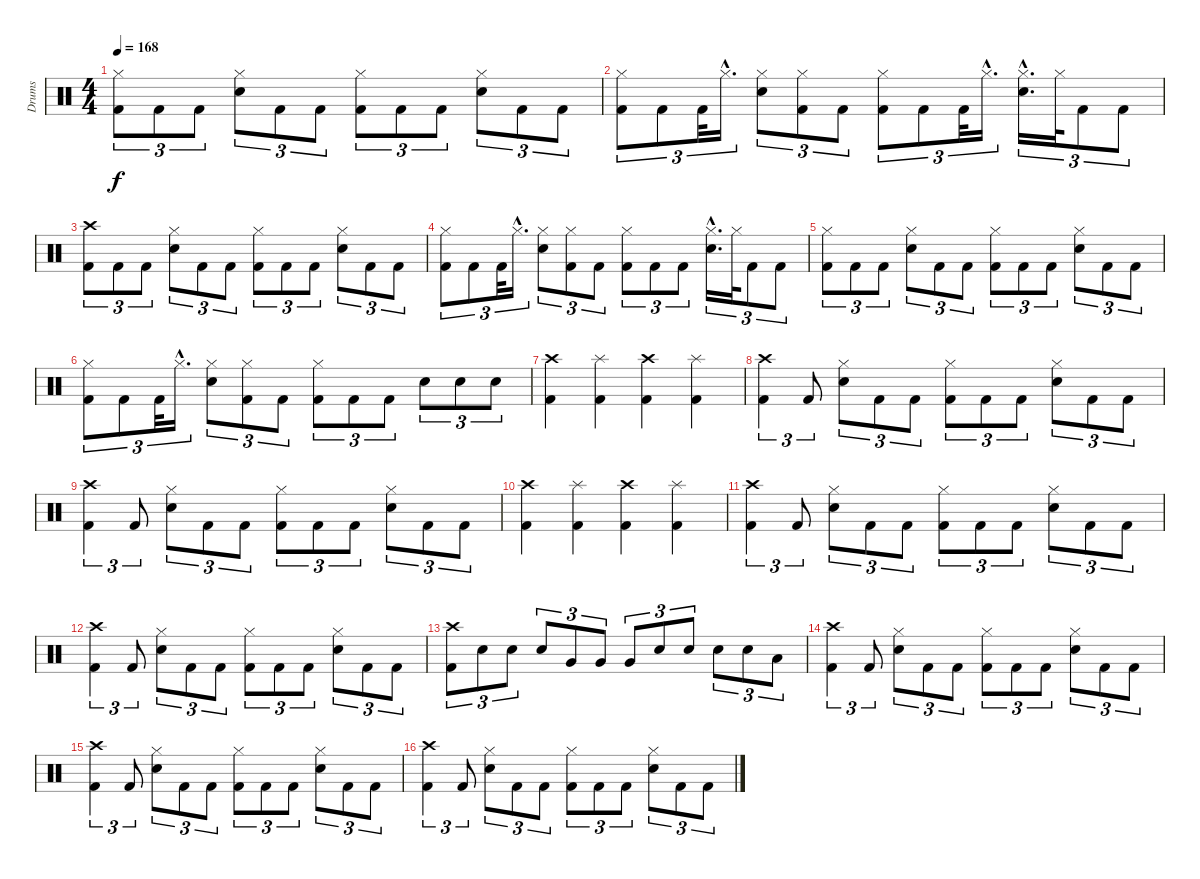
\track ("Drums" "Drums") {instrument percussion}
\staff {score}
\articulation defaults
\ts (4 4)
\tempo 168
\clef neutral
\ks c
("Kick (hit) 2" "Hi-Hat (closed)").8{tu (3 2) dy f} "Kick (hit) 2".8{tu (3 2)} "Kick (hit) 2".8{tu (3 2)} ("Electric Snare (hit)" "Hi-Hat (closed)").8{tu (3 2)} "Kick (hit) 2".8{tu (3 2)} "Kick (hit) 2".8{tu (3 2)} ("Kick (hit) 2" "Hi-Hat (closed)").8{tu (3 2)} "Kick (hit) 2".8{tu (3 2)} "Kick (hit) 2".8{tu (3 2)} ("Electric Snare (hit)" "Hi-Hat (closed)").8{tu (3 2)} "Kick (hit) 2".8{tu (3 2)} "Kick (hit) 2".8{tu (3 2)} |
("Kick (hit) 2" "Hi-Hat (closed)").8{tu (3 2)} "Kick (hit) 2".8{tu (3 2)} "Kick (hit) 2".32{tu (3 2)} "Hi-Hat (closed)"{hac}.16{d tu (3 2)} ("Electric Snare (hit)" "Hi-Hat (closed)").8{tu (3 2)} ("Kick (hit) 2" "Hi-Hat (closed)").8{tu (3 2)} "Kick (hit) 2".8{tu (3 2)} ("Kick (hit) 2" "Hi-Hat (closed)").8{tu (3 2)} "Kick (hit) 2".8{tu (3 2)} "Kick (hit) 2".32{tu (3 2)} "Hi-Hat (closed)"{hac}.16{d tu (3 2)} ("Electric Snare (hit)"{hac} "Hi-Hat (closed)"{hac}).16{d tu (3 2)} "Hi-Hat (closed)".32{tu (3 2)} "Kick (hit) 2".8{tu (3 2)} "Kick (hit) 2".8{tu (3 2)} |
("Kick (hit) 2" "Crash high (hit)").8{tu (3 2) balance 8} "Kick (hit) 2".8{tu (3 2)} "Kick (hit) 2".8{tu (3 2)} ("Hi-Hat (closed)" "Electric Snare (hit)").8{tu (3 2)} "Kick (hit) 2".8{tu (3 2)} "Kick (hit) 2".8{tu (3 2)} ("Kick (hit) 2" "Hi-Hat (closed)").8{tu (3 2)} "Kick (hit) 2".8{tu (3 2)} "Kick (hit) 2".8{tu (3 2)} ("Hi-Hat (closed)" "Electric Snare (hit)").8{tu (3 2)} "Kick (hit) 2".8{tu (3 2)} "Kick (hit) 2".8{tu (3 2)} |
("Kick (hit) 2" "Hi-Hat (closed)").8{tu (3 2)} "Kick (hit) 2".8{tu (3 2)} "Kick (hit) 2".32{tu (3 2)} "Hi-Hat (closed)"{hac}.16{d tu (3 2)} ("Electric Snare (hit)" "Hi-Hat (closed)").8{tu (3 2)} ("Kick (hit) 2" "Hi-Hat (closed)").8{tu (3 2)} "Kick (hit) 2".8{tu (3 2)} ("Kick (hit) 2" "Hi-Hat (closed)").8{tu (3 2)} "Kick (hit) 2".8{tu (3 2)} "Kick (hit) 2".8{tu (3 2)} ("Electric Snare (hit)"{hac} "Hi-Hat (closed)"{hac}).16{d tu (3 2)} "Hi-Hat (closed)".32{tu (3 2)} "Kick (hit) 2".8{tu (3 2)} "Kick (hit) 2".8{tu (3 2)} |
("Kick (hit) 2" "Hi-Hat (closed)").8{tu (3 2)} "Kick (hit) 2".8{tu (3 2)} "Kick (hit) 2".8{tu (3 2)} ("Electric Snare (hit)" "Hi-Hat (closed)").8{tu (3 2)} "Kick (hit) 2".8{tu (3 2)} "Kick (hit) 2".8{tu (3 2)} ("Kick (hit) 2" "Hi-Hat (closed)").8{tu (3 2)} "Kick (hit) 2".8{tu (3 2)} "Kick (hit) 2".8{tu (3 2)} ("Electric Snare (hit)" "Hi-Hat (closed)").8{tu (3 2)} "Kick (hit) 2".8{tu (3 2)} "Kick (hit) 2".8{tu (3 2)} |
("Kick (hit) 2" "Hi-Hat (closed)").8{tu (3 2)} "Kick (hit) 2".8{tu (3 2)} "Kick (hit) 2".32{tu (3 2)} "Hi-Hat (closed)"{hac}.16{d tu (3 2)} ("Electric Snare (hit)" "Hi-Hat (closed)").8{tu (3 2)} ("Kick (hit) 2" "Hi-Hat (closed)").8{tu (3 2)} "Kick (hit) 2".8{tu (3 2)} ("Kick (hit) 2" "Hi-Hat (closed)").8{tu (3 2)} "Kick (hit) 2".8{tu (3 2)} "Kick (hit) 2".8{tu (3 2)} "Electric Snare (hit)".8{tu (3 2)} "Electric Snare (hit)".8{tu (3 2)} "Electric Snare (hit)".8{tu (3 2)} |
("Kick (hit) 2" "Crash high (hit)").4 ("Kick (hit) 2" "Splash (hit)").4 ("Kick (hit) 2" "Crash high (hit)").4 ("Kick (hit) 2" "Splash (hit)").4 |
("Kick (hit) 2" "Crash high (hit)").4{tu (3 2)} "Kick (hit) 2".8{tu (3 2)} ("Hi-Hat (closed)" "Electric Snare (hit)").8{tu (3 2)} "Kick (hit) 2".8{tu (3 2)} "Kick (hit) 2".8{tu (3 2)} ("Kick (hit) 2" "Hi-Hat (closed)").8{tu (3 2)} "Kick (hit) 2".8{tu (3 2)} "Kick (hit) 2".8{tu (3 2)} ("Hi-Hat (closed)" "Electric Snare (hit)").8{tu (3 2)} "Kick (hit) 2".8{tu (3 2)} "Kick (hit) 2".8{tu (3 2)} |
("Kick (hit) 2" "Crash high (hit)").4{tu (3 2)} "Kick (hit) 2".8{tu (3 2)} ("Hi-Hat (closed)" "Electric Snare (hit)").8{tu (3 2)} "Kick (hit) 2".8{tu (3 2)} "Kick (hit) 2".8{tu (3 2)} ("Kick (hit) 2" "Hi-Hat (closed)").8{tu (3 2)} "Kick (hit) 2".8{tu (3 2)} "Kick (hit) 2".8{tu (3 2)} ("Hi-Hat (closed)" "Electric Snare (hit)").8{tu (3 2)} "Kick (hit) 2".8{tu (3 2)} "Kick (hit) 2".8{tu (3 2)} |
("Kick (hit) 2" "Crash high (hit)").4 ("Kick (hit) 2" "Splash (hit)").4 ("Kick (hit) 2" "Crash high (hit)").4 ("Kick (hit) 2" "Splash (hit)").4 |
("Kick (hit) 2" "Crash high (hit)").4{tu (3 2)} "Kick (hit) 2".8{tu (3 2)} ("Hi-Hat (closed)" "Electric Snare (hit)").8{tu (3 2)} "Kick (hit) 2".8{tu (3 2)} "Kick (hit) 2".8{tu (3 2)} ("Kick (hit) 2" "Hi-Hat (closed)").8{tu (3 2)} "Kick (hit) 2".8{tu (3 2)} "Kick (hit) 2".8{tu (3 2)} ("Hi-Hat (closed)" "Electric Snare (hit)").8{tu (3 2)} "Kick (hit) 2".8{tu (3 2)} "Kick (hit) 2".8{tu (3 2)} |
("Kick (hit) 2" "Crash high (hit)").4{tu (3 2)} "Kick (hit) 2".8{tu (3 2)} ("Hi-Hat (closed)" "Electric Snare (hit)").8{tu (3 2)} "Kick (hit) 2".8{tu (3 2)} "Kick (hit) 2".8{tu (3 2)} ("Kick (hit) 2" "Hi-Hat (closed)").8{tu (3 2)} "Kick (hit) 2".8{tu (3 2)} "Kick (hit) 2".8{tu (3 2)} ("Hi-Hat (closed)" "Electric Snare (hit)").8{tu (3 2)} "Kick (hit) 2".8{tu (3 2)} "Kick (hit) 2".8{tu (3 2)} |
("Kick (hit) 2" "Crash high (hit)").8{tu (3 2)} "Electric Snare (hit)".8{tu (3 2)} "Electric Snare (hit)".8{tu (3 2)} "Electric Snare (hit)".8{tu (3 2)} "Very Low Tom (hit)".8{tu (3 2) balance 11} "Very Low Tom (hit)".8{tu (3 2)} "Very Low Tom (hit)".8{tu (3 2)} "Electric Snare (hit)".8{tu (3 2) balance 8} "Electric Snare (hit)".8{tu (3 2)} "Electric Snare (hit)".8{tu (3 2)} "Electric Snare (hit)".8{tu (3 2)} "Low Floor Tom (hit)".8{tu (3 2) balance 12} |
("Kick (hit) 2" "Crash high (hit)").4{tu (3 2)} "Kick (hit) 2".8{tu (3 2)} ("Hi-Hat (closed)" "Electric Snare (hit)").8{tu (3 2)} "Kick (hit) 2".8{tu (3 2)} "Kick (hit) 2".8{tu (3 2)} ("Kick (hit) 2" "Hi-Hat (closed)").8{tu (3 2)} "Kick (hit) 2".8{tu (3 2)} "Kick (hit) 2".8{tu (3 2)} ("Hi-Hat (closed)" "Electric Snare (hit)").8{tu (3 2)} "Kick (hit) 2".8{tu (3 2)} "Kick (hit) 2".8{tu (3 2)} |
("Kick (hit) 2" "Crash high (hit)").4{tu (3 2)} "Kick (hit) 2".8{tu (3 2)} ("Hi-Hat (closed)" "Electric Snare (hit)").8{tu (3 2)} "Kick (hit) 2".8{tu (3 2)} "Kick (hit) 2".8{tu (3 2)} ("Kick (hit) 2" "Hi-Hat (closed)").8{tu (3 2)} "Kick (hit) 2".8{tu (3 2)} "Kick (hit) 2".8{tu (3 2)} ("Hi-Hat (closed)" "Electric Snare (hit)").8{tu (3 2)} "Kick (hit) 2".8{tu (3 2)} "Kick (hit) 2".8{tu (3 2)} |
("Kick (hit) 2" "Crash high (hit)").4{tu (3 2)} "Kick (hit) 2".8{tu (3 2)} ("Hi-Hat (closed)" "Electric Snare (hit)").8{tu (3 2)} "Kick (hit) 2".8{tu (3 2)} "Kick (hit) 2".8{tu (3 2)} ("Kick (hit) 2" "Hi-Hat (closed)").8{tu (3 2)} "Kick (hit) 2".8{tu (3 2)} "Kick (hit) 2".8{tu (3 2)} ("Hi-Hat (closed)" "Electric Snare (hit)").8{tu (3 2)} "Kick (hit) 2".8{tu (3 2)} "Kick (hit) 2".8{tu (3 2)}
